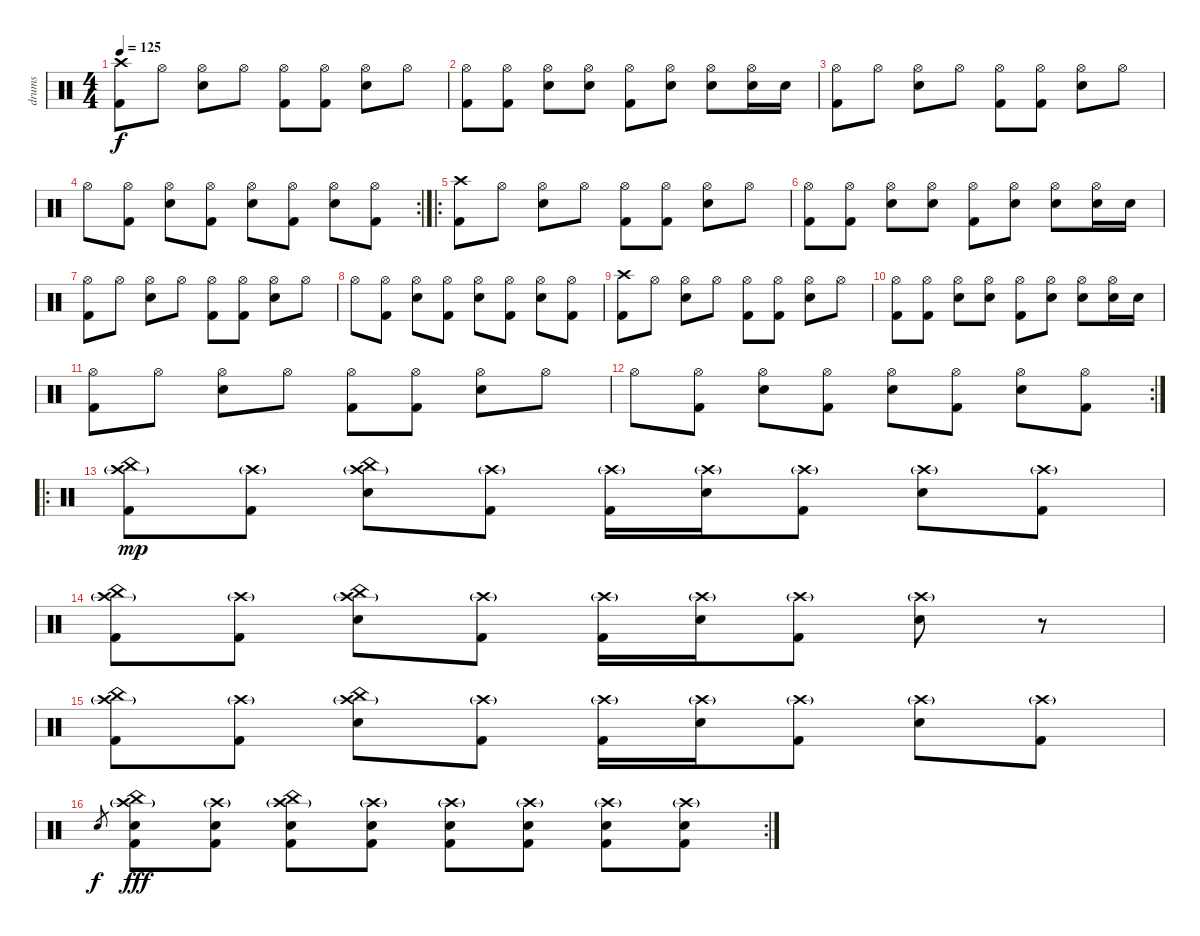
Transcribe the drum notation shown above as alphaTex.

\track ("drums" "drums") {instrument percussion}
\staff {score}
\articulation defaults
\ts (4 4)
\tempo 125
\clef neutral
\ks c
("Crash high (hit)" "Kick (hit) 2").8{dy f} "Hi-Hat (open)".8 ("Hi-Hat (open)" "Electric Snare (hit)").8 "Hi-Hat (open)".8 ("Hi-Hat (open)" "Kick (hit) 2").8 ("Hi-Hat (open)" "Kick (hit) 2").8 ("Hi-Hat (open)" "Electric Snare (hit)").8 "Hi-Hat (open)".8 |
("Hi-Hat (open)" "Kick (hit) 2").8 ("Hi-Hat (open)" "Kick (hit) 2").8 ("Hi-Hat (open)" "Electric Snare (hit)").8 ("Hi-Hat (open)" "Electric Snare (hit)").8 ("Hi-Hat (open)" "Kick (hit) 2").8 ("Hi-Hat (open)" "Electric Snare (hit)").8 ("Hi-Hat (open)" "Electric Snare (hit)").8 ("Hi-Hat (open)" "Electric Snare (hit)").16 "Electric Snare (hit)".16 |
("Hi-Hat (open)" "Kick (hit) 2").8 "Hi-Hat (open)".8 ("Hi-Hat (open)" "Electric Snare (hit)").8 "Hi-Hat (open)".8 ("Hi-Hat (open)" "Kick (hit) 2").8 ("Hi-Hat (open)" "Kick (hit) 2").8 ("Hi-Hat (open)" "Electric Snare (hit)").8 "Hi-Hat (open)".8 |
\rc 2 "Hi-Hat (open)".8
("Hi-Hat (open)" "Kick (hit) 2").8 ("Hi-Hat (open)" "Electric Snare (hit)").8 ("Hi-Hat (open)" "Kick (hit) 2").8 ("Hi-Hat (open)" "Electric Snare (hit)").8 ("Hi-Hat (open)" "Kick (hit) 2").8 ("Hi-Hat (open)" "Electric Snare (hit)").8 ("Hi-Hat (open)" "Kick (hit) 2").8 |
\ro
("Crash high (hit)" "Kick (hit) 2").8 "Hi-Hat (open)".8 ("Hi-Hat (open)" "Electric Snare (hit)").8 "Hi-Hat (open)".8 ("Hi-Hat (open)" "Kick (hit) 2").8 ("Hi-Hat (open)" "Kick (hit) 2").8 ("Hi-Hat (open)" "Electric Snare (hit)").8 "Hi-Hat (open)".8 |
("Hi-Hat (open)" "Kick (hit) 2").8 ("Hi-Hat (open)" "Kick (hit) 2").8 ("Hi-Hat (open)" "Electric Snare (hit)").8 ("Hi-Hat (open)" "Electric Snare (hit)").8 ("Hi-Hat (open)" "Kick (hit) 2").8 ("Hi-Hat (open)" "Electric Snare (hit)").8 ("Hi-Hat (open)" "Electric Snare (hit)").8 ("Hi-Hat (open)" "Electric Snare (hit)").16 "Electric Snare (hit)".16 |
("Hi-Hat (open)" "Kick (hit) 2").8 "Hi-Hat (open)".8 ("Hi-Hat (open)" "Electric Snare (hit)").8 "Hi-Hat (open)".8 ("Hi-Hat (open)" "Kick (hit) 2").8 ("Hi-Hat (open)" "Kick (hit) 2").8 ("Hi-Hat (open)" "Electric Snare (hit)").8 "Hi-Hat (open)".8 |
"Hi-Hat (open)".8 ("Hi-Hat (open)" "Kick (hit) 2").8 ("Hi-Hat (open)" "Electric Snare (hit)").8 ("Hi-Hat (open)" "Kick (hit) 2").8 ("Hi-Hat (open)" "Electric Snare (hit)").8 ("Hi-Hat (open)" "Kick (hit) 2").8 ("Hi-Hat (open)" "Electric Snare (hit)").8 ("Hi-Hat (open)" "Kick (hit) 2").8 |
("Crash high (hit)" "Kick (hit) 2").8 "Hi-Hat (open)".8 ("Hi-Hat (open)" "Electric Snare (hit)").8 "Hi-Hat (open)".8 ("Hi-Hat (open)" "Kick (hit) 2").8 ("Hi-Hat (open)" "Kick (hit) 2").8 ("Hi-Hat (open)" "Electric Snare (hit)").8 "Hi-Hat (open)".8 |
("Hi-Hat (open)" "Kick (hit) 2").8 ("Hi-Hat (open)" "Kick (hit) 2").8 ("Hi-Hat (open)" "Electric Snare (hit)").8 ("Hi-Hat (open)" "Electric Snare (hit)").8 ("Hi-Hat (open)" "Kick (hit) 2").8 ("Hi-Hat (open)" "Electric Snare (hit)").8 ("Hi-Hat (open)" "Electric Snare (hit)").8 ("Hi-Hat (open)" "Electric Snare (hit)").16 "Electric Snare (hit)".16 |
("Hi-Hat (open)" "Kick (hit) 2").8 "Hi-Hat (open)".8 ("Hi-Hat (open)" "Electric Snare (hit)").8 "Hi-Hat (open)".8 ("Hi-Hat (open)" "Kick (hit) 2").8 ("Hi-Hat (open)" "Kick (hit) 2").8 ("Hi-Hat (open)" "Electric Snare (hit)").8 "Hi-Hat (open)".8 |
\rc 2 "Hi-Hat (open)".8
("Hi-Hat (open)" "Kick (hit) 2").8 ("Hi-Hat (open)" "Electric Snare (hit)").8 ("Hi-Hat (open)" "Kick (hit) 2").8 ("Hi-Hat (open)" "Electric Snare (hit)").8 ("Hi-Hat (open)" "Kick (hit) 2").8 ("Hi-Hat (open)" "Electric Snare (hit)").8 ("Hi-Hat (open)" "Kick (hit) 2").8 |
\ro
("Crash high (hit)"{g} "China (hit)" "Kick (hit) 2").8{dy mp} ("Crash high (hit)"{g} "Kick (hit) 2").8 ("Crash high (hit)"{g} "China (hit)" "Electric Snare (hit)").8 ("Crash high (hit)"{g} "Kick (hit) 2").8 ("Crash high (hit)"{g} "Kick (hit) 2").16 ("Crash high (hit)"{g} "Electric Snare (hit)").16 ("Crash high (hit)"{g} "Kick (hit) 2").8 ("Crash high (hit)"{g} "Electric Snare (hit)").8 ("Crash high (hit)"{g} "Kick (hit) 2").8 |
("Crash high (hit)"{g} "China (hit)" "Kick (hit) 2").8 ("Crash high (hit)"{g} "Kick (hit) 2").8 ("Crash high (hit)"{g} "China (hit)" "Electric Snare (hit)").8 ("Crash high (hit)"{g} "Kick (hit) 2").8 ("Crash high (hit)"{g} "Kick (hit) 2").16 ("Crash high (hit)"{g} "Electric Snare (hit)").16 ("Crash high (hit)"{g} "Kick (hit) 2").8 ("Crash high (hit)"{g} "Electric Snare (hit)").8 r.8 |
("Crash high (hit)"{g} "China (hit)" "Kick (hit) 2").8 ("Crash high (hit)"{g} "Kick (hit) 2").8 ("Crash high (hit)"{g} "China (hit)" "Electric Snare (hit)").8 ("Crash high (hit)"{g} "Kick (hit) 2").8 ("Crash high (hit)"{g} "Kick (hit) 2").16 ("Crash high (hit)"{g} "Electric Snare (hit)").16 ("Crash high (hit)"{g} "Kick (hit) 2").8 ("Crash high (hit)"{g} "Electric Snare (hit)").8 ("Crash high (hit)"{g} "Kick (hit) 2").8 |
\rc 2 "Electric Snare (hit)".8{gr dy f}
("Crash high (hit)"{g} "China (hit)" "Kick (hit) 2" "Electric Snare (hit)").8{dy fff} ("Crash high (hit)"{g} "Kick (hit) 2" "Electric Snare (hit)").8 ("Crash high (hit)"{g} "China (hit)" "Kick (hit) 2" "Electric Snare (hit)").8 ("Crash high (hit)"{g} "Kick (hit) 2" "Electric Snare (hit)").8 ("Crash high (hit)"{g} "Kick (hit) 2" "Electric Snare (hit)").8 ("Crash high (hit)"{g} "Kick (hit) 2" "Electric Snare (hit)").8 ("Crash high (hit)"{g} "Kick (hit) 2" "Electric Snare (hit)").8 ("Crash high (hit)"{g} "Kick (hit) 2" "Electric Snare (hit)").8
